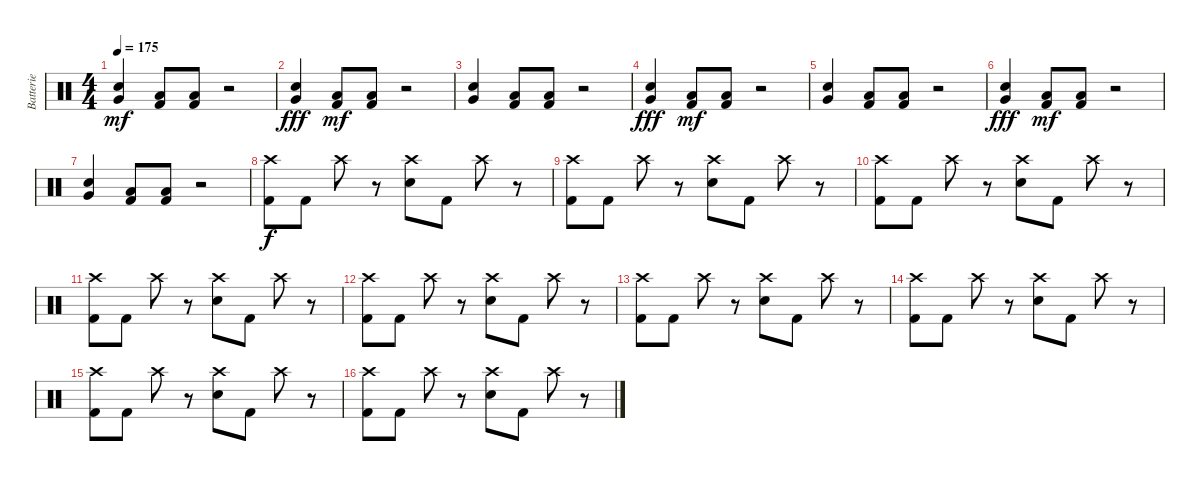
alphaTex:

\track ("Batterie" "Batterie") {instrument percussion}
\staff {score}
\articulation defaults
\ts (4 4)
\tempo 175
\clef neutral
\ks c
("Electric Snare (hit)" "Very Low Tom (hit)").4{dy mf} ("Kick (hit) 2" "Low Floor Tom (hit)").8 ("Kick (hit) 2" "Low Floor Tom (hit)").8 r.2 |
("Electric Snare (hit)" "Very Low Tom (hit)").4{dy fff} ("Kick (hit) 2" "Low Floor Tom (hit)").8{dy mf} ("Kick (hit) 2" "Low Floor Tom (hit)").8 r.2 |
("Electric Snare (hit)" "Very Low Tom (hit)").4 ("Kick (hit) 2" "Low Floor Tom (hit)").8 ("Kick (hit) 2" "Low Floor Tom (hit)").8 r.2 |
("Electric Snare (hit)" "Very Low Tom (hit)").4{dy fff} ("Kick (hit) 2" "Low Floor Tom (hit)").8{dy mf} ("Kick (hit) 2" "Low Floor Tom (hit)").8 r.2 |
("Electric Snare (hit)" "Very Low Tom (hit)").4 ("Kick (hit) 2" "Low Floor Tom (hit)").8 ("Kick (hit) 2" "Low Floor Tom (hit)").8 r.2 |
("Electric Snare (hit)" "Very Low Tom (hit)").4{dy fff} ("Kick (hit) 2" "Low Floor Tom (hit)").8{dy mf} ("Kick (hit) 2" "Low Floor Tom (hit)").8 r.2 |
("Electric Snare (hit)" "Very Low Tom (hit)").4 ("Kick (hit) 2" "Low Floor Tom (hit)").8 ("Kick (hit) 2" "Low Floor Tom (hit)").8 r.2 |
("Kick (hit) 2" "Crash high (hit)").8{dy f} "Kick (hit) 2".8 "Crash high (hit)".8 r.8 ("Electric Snare (hit)" "Crash high (hit)").8 "Kick (hit) 2".8 "Crash high (hit)".8 r.8 |
("Kick (hit) 2" "Crash high (hit)").8 "Kick (hit) 2".8 "Crash high (hit)".8 r.8 ("Electric Snare (hit)" "Crash high (hit)").8 "Kick (hit) 2".8 "Crash high (hit)".8 r.8 |
("Kick (hit) 2" "Crash high (hit)").8 "Kick (hit) 2".8 "Crash high (hit)".8 r.8 ("Electric Snare (hit)" "Crash high (hit)").8 "Kick (hit) 2".8 "Crash high (hit)".8 r.8 |
("Kick (hit) 2" "Crash high (hit)").8 "Kick (hit) 2".8 "Crash high (hit)".8 r.8 ("Electric Snare (hit)" "Crash high (hit)").8 "Kick (hit) 2".8 "Crash high (hit)".8 r.8 |
("Kick (hit) 2" "Crash high (hit)").8 "Kick (hit) 2".8 "Crash high (hit)".8 r.8 ("Electric Snare (hit)" "Crash high (hit)").8 "Kick (hit) 2".8 "Crash high (hit)".8 r.8 |
("Kick (hit) 2" "Crash high (hit)").8 "Kick (hit) 2".8 "Crash high (hit)".8 r.8 ("Electric Snare (hit)" "Crash high (hit)").8 "Kick (hit) 2".8 "Crash high (hit)".8 r.8 |
("Kick (hit) 2" "Crash high (hit)").8 "Kick (hit) 2".8 "Crash high (hit)".8 r.8 ("Electric Snare (hit)" "Crash high (hit)").8 "Kick (hit) 2".8 "Crash high (hit)".8 r.8 |
("Kick (hit) 2" "Crash high (hit)").8 "Kick (hit) 2".8 "Crash high (hit)".8 r.8 ("Electric Snare (hit)" "Crash high (hit)").8 "Kick (hit) 2".8 "Crash high (hit)".8 r.8 |
("Kick (hit) 2" "Crash high (hit)").8 "Kick (hit) 2".8 "Crash high (hit)".8 r.8 ("Electric Snare (hit)" "Crash high (hit)").8 "Kick (hit) 2".8 "Crash high (hit)".8 r.8
